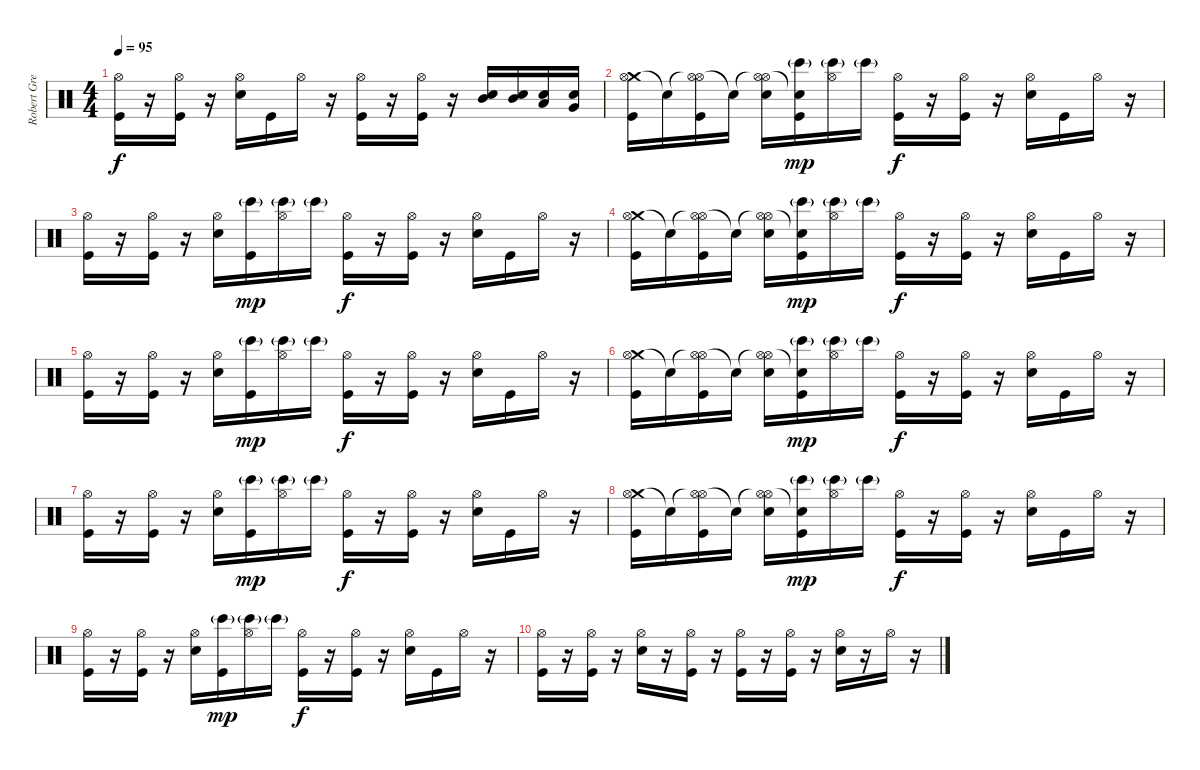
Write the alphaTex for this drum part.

\track ("Robert Gregory Bourdan" "Robert Gre") {instrument percussion}
\staff {score}
\articulation defaults
\ts (4 4)
\tempo 95
\clef neutral
\ks c
("Hi-Hat (open)" "Kick (hit)").16{dy f} r.16 ("Hi-Hat (open)" "Kick (hit)").16 r.16 ("Hi-Hat (open)" "Electric Snare (hit)").16 "Kick (hit)".16 "Hi-Hat (open)".16 r.16 ("Hi-Hat (open)" "Kick (hit)").16 r.16 ("Hi-Hat (open)" "Kick (hit)").16 r.16 ("Electric Snare (hit)" "Mid Tom (hit)").16 ("Electric Snare (hit)" "Mid Tom (hit)").16 ("Electric Snare (hit)" "Low Tom (hit)").16 ("Electric Snare (hit)" "Very Low Tom (hit)").16 |
("Crash medium (hit)" "Hi-Hat (open)" "Kick (hit)").16 "Snare (hit)"{t}.16 ("Hi-Hat (open)"{t} "Hi-Hat (open)" "Kick (hit)").16 "Snare (hit)"{t}.16 ("Hi-Hat (open)"{t} "Hi-Hat (open)" "Electric Snare (hit)").16 ("Snare (hit)"{t} "Kick (hit)" "Bongo High (hit)"{g}).16{dy mp} ("Hi-Hat (open)" "Bongo High (hit)"{g}).16 "Bongo High (hit)"{g}.16 ("Hi-Hat (open)" "Kick (hit)").16{dy f} r.16 ("Hi-Hat (open)" "Kick (hit)").16 r.16 ("Hi-Hat (open)" "Electric Snare (hit)").16 "Kick (hit)".16 "Hi-Hat (open)".16 r.16 |
("Hi-Hat (open)" "Kick (hit)").16 r.16 ("Hi-Hat (open)" "Kick (hit)").16 r.16 ("Hi-Hat (open)" "Electric Snare (hit)").16 ("Kick (hit)" "Bongo High (hit)"{g}).16{dy mp} ("Hi-Hat (open)" "Bongo High (hit)"{g}).16 "Bongo High (hit)"{g}.16 ("Hi-Hat (open)" "Kick (hit)").16{dy f} r.16 ("Hi-Hat (open)" "Kick (hit)").16 r.16 ("Hi-Hat (open)" "Electric Snare (hit)").16 "Kick (hit)".16 "Hi-Hat (open)".16 r.16 |
("Crash medium (hit)" "Hi-Hat (open)" "Kick (hit)").16 "Snare (hit)"{t}.16 ("Hi-Hat (open)"{t} "Hi-Hat (open)" "Kick (hit)").16 "Snare (hit)"{t}.16 ("Hi-Hat (open)"{t} "Hi-Hat (open)" "Electric Snare (hit)").16 ("Snare (hit)"{t} "Kick (hit)" "Bongo High (hit)"{g}).16{dy mp} ("Hi-Hat (open)" "Bongo High (hit)"{g}).16 "Bongo High (hit)"{g}.16 ("Hi-Hat (open)" "Kick (hit)").16{dy f} r.16 ("Hi-Hat (open)" "Kick (hit)").16 r.16 ("Hi-Hat (open)" "Electric Snare (hit)").16 "Kick (hit)".16 "Hi-Hat (open)".16 r.16 |
("Hi-Hat (open)" "Kick (hit)").16 r.16 ("Hi-Hat (open)" "Kick (hit)").16 r.16 ("Hi-Hat (open)" "Electric Snare (hit)").16 ("Kick (hit)" "Bongo High (hit)"{g}).16{dy mp} ("Hi-Hat (open)" "Bongo High (hit)"{g}).16 "Bongo High (hit)"{g}.16 ("Hi-Hat (open)" "Kick (hit)").16{dy f} r.16 ("Hi-Hat (open)" "Kick (hit)").16 r.16 ("Hi-Hat (open)" "Electric Snare (hit)").16 "Kick (hit)".16 "Hi-Hat (open)".16 r.16 |
("Crash medium (hit)" "Hi-Hat (open)" "Kick (hit)").16 "Snare (hit)"{t}.16 ("Hi-Hat (open)"{t} "Hi-Hat (open)" "Kick (hit)").16 "Snare (hit)"{t}.16 ("Hi-Hat (open)"{t} "Hi-Hat (open)" "Electric Snare (hit)").16 ("Snare (hit)"{t} "Kick (hit)" "Bongo High (hit)"{g}).16{dy mp} ("Hi-Hat (open)" "Bongo High (hit)"{g}).16 "Bongo High (hit)"{g}.16 ("Hi-Hat (open)" "Kick (hit)").16{dy f} r.16 ("Hi-Hat (open)" "Kick (hit)").16 r.16 ("Hi-Hat (open)" "Electric Snare (hit)").16 "Kick (hit)".16 "Hi-Hat (open)".16 r.16 |
("Hi-Hat (open)" "Kick (hit)").16 r.16 ("Hi-Hat (open)" "Kick (hit)").16 r.16 ("Hi-Hat (open)" "Electric Snare (hit)").16 ("Kick (hit)" "Bongo High (hit)"{g}).16{dy mp} ("Hi-Hat (open)" "Bongo High (hit)"{g}).16 "Bongo High (hit)"{g}.16 ("Hi-Hat (open)" "Kick (hit)").16{dy f} r.16 ("Hi-Hat (open)" "Kick (hit)").16 r.16 ("Hi-Hat (open)" "Electric Snare (hit)").16 "Kick (hit)".16 "Hi-Hat (open)".16 r.16 |
("Crash medium (hit)" "Hi-Hat (open)" "Kick (hit)").16 "Snare (hit)"{t}.16 ("Hi-Hat (open)"{t} "Hi-Hat (open)" "Kick (hit)").16 "Snare (hit)"{t}.16 ("Hi-Hat (open)"{t} "Hi-Hat (open)" "Electric Snare (hit)").16 ("Snare (hit)"{t} "Kick (hit)" "Bongo High (hit)"{g}).16{dy mp} ("Hi-Hat (open)" "Bongo High (hit)"{g}).16 "Bongo High (hit)"{g}.16 ("Hi-Hat (open)" "Kick (hit)").16{dy f} r.16 ("Hi-Hat (open)" "Kick (hit)").16 r.16 ("Hi-Hat (open)" "Electric Snare (hit)").16 "Kick (hit)".16 "Hi-Hat (open)".16 r.16 |
("Hi-Hat (open)" "Kick (hit)").16 r.16 ("Hi-Hat (open)" "Kick (hit)").16 r.16 ("Hi-Hat (open)" "Electric Snare (hit)").16 ("Kick (hit)" "Bongo High (hit)"{g}).16{dy mp} ("Hi-Hat (open)" "Bongo High (hit)"{g}).16 "Bongo High (hit)"{g}.16 ("Hi-Hat (open)" "Kick (hit)").16{dy f} r.16 ("Hi-Hat (open)" "Kick (hit)").16 r.16 ("Hi-Hat (open)" "Electric Snare (hit)").16 "Kick (hit)".16 "Hi-Hat (open)".16 r.16 |
("Hi-Hat (open)" "Kick (hit)").16 r.16 ("Hi-Hat (open)" "Kick (hit)").16 r.16 ("Hi-Hat (open)" "Electric Snare (hit)").16 r.16 ("Hi-Hat (open)" "Kick (hit)").16 r.16 ("Hi-Hat (open)" "Kick (hit)").16 r.16 ("Hi-Hat (open)" "Kick (hit)").16 r.16 ("Hi-Hat (open)" "Electric Snare (hit)").16 r.16 "Hi-Hat (open)".16 r.16
